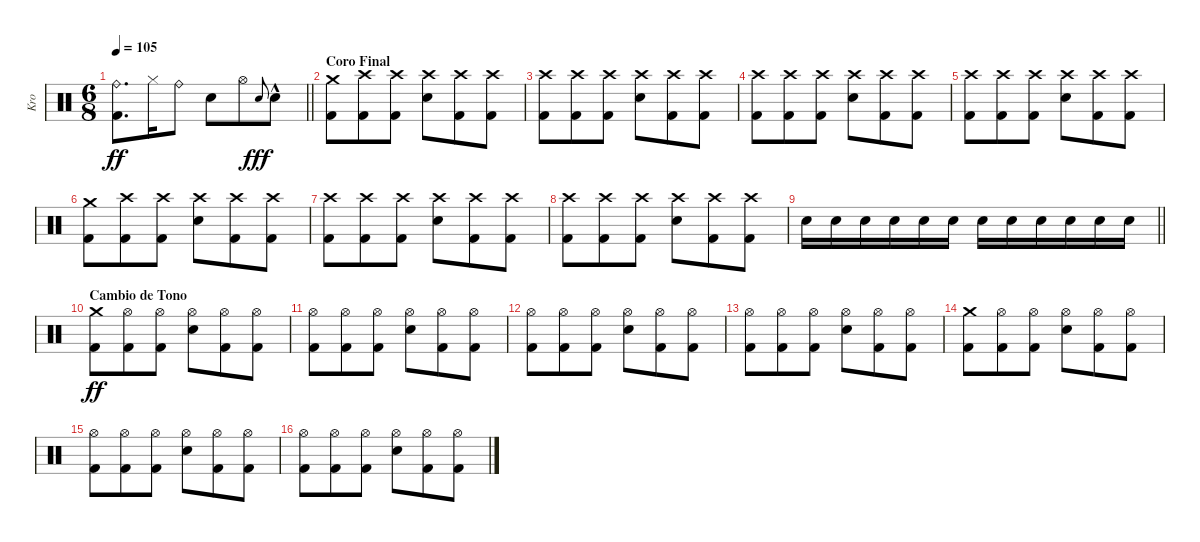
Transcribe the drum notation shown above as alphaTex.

\track ("Kro" "Kro") {instrument percussion}
\staff {score}
\articulation defaults
\ts (6 8)
\tempo 105
\clef neutral
\barLineRight lightlight
\ks c
("Ride (bell)" "Kick (hit) 2").8{d dy ff} "Hi-Hat (closed)".16 "Ride (bell)".8 "Electric Snare (hit)".8 "Hi-Hat (open)".8 "Electric Snare (hit)".8{gr onbeat dy fff} "Electric Snare (hit)"{hac}.8 |
\section ("" "Coro Final")
("Crash medium (hit)" "Kick (hit) 2").8 ("Crash high (hit)" "Kick (hit) 2").8 ("Crash high (hit)" "Kick (hit) 2").8 ("Crash high (hit)" "Electric Snare (hit)").8 ("Crash high (hit)" "Kick (hit) 2").8 ("Crash high (hit)" "Kick (hit) 2").8 |
("Crash high (hit)" "Kick (hit) 2").8 ("Crash high (hit)" "Kick (hit) 2").8 ("Crash high (hit)" "Kick (hit) 2").8 ("Crash high (hit)" "Electric Snare (hit)").8 ("Crash high (hit)" "Kick (hit) 2").8 ("Crash high (hit)" "Kick (hit) 2").8 |
("Crash high (hit)" "Kick (hit) 2").8 ("Crash high (hit)" "Kick (hit) 2").8 ("Crash high (hit)" "Kick (hit) 2").8 ("Crash high (hit)" "Electric Snare (hit)").8 ("Crash high (hit)" "Kick (hit) 2").8 ("Crash high (hit)" "Kick (hit) 2").8 |
("Crash high (hit)" "Kick (hit) 2").8 ("Crash high (hit)" "Kick (hit) 2").8 ("Crash high (hit)" "Kick (hit) 2").8 ("Crash high (hit)" "Electric Snare (hit)").8 ("Crash high (hit)" "Kick (hit) 2").8 ("Crash high (hit)" "Kick (hit) 2").8 |
("Crash medium (hit)" "Kick (hit) 2").8 ("Crash high (hit)" "Kick (hit) 2").8 ("Crash high (hit)" "Kick (hit) 2").8 ("Crash high (hit)" "Electric Snare (hit)").8 ("Crash high (hit)" "Kick (hit) 2").8 ("Crash high (hit)" "Kick (hit) 2").8 |
("Crash high (hit)" "Kick (hit) 2").8 ("Crash high (hit)" "Kick (hit) 2").8 ("Crash high (hit)" "Kick (hit) 2").8 ("Crash high (hit)" "Electric Snare (hit)").8 ("Crash high (hit)" "Kick (hit) 2").8 ("Crash high (hit)" "Kick (hit) 2").8 |
("Crash high (hit)" "Kick (hit) 2").8 ("Crash high (hit)" "Kick (hit) 2").8 ("Crash high (hit)" "Kick (hit) 2").8 ("Crash high (hit)" "Electric Snare (hit)").8 ("Crash high (hit)" "Kick (hit) 2").8 ("Crash high (hit)" "Kick (hit) 2").8 |
\barLineRight lightlight "Electric Snare (hit)".16 "Electric Snare (hit)".16 "Electric Snare (hit)".16 "Electric Snare (hit)".16 "Electric Snare (hit)".16 "Electric Snare (hit)".16 "Electric Snare (hit)".16 "Electric Snare (hit)".16 "Electric Snare (hit)".16 "Electric Snare (hit)".16 "Electric Snare (hit)".16 "Electric Snare (hit)".16
|
\section ("" "Cambio de Tono")
("Crash medium (hit)" "Kick (hit) 2").8{dy ff} ("Hi-Hat (open)" "Kick (hit) 2").8 ("Hi-Hat (open)" "Kick (hit) 2").8 ("Hi-Hat (open)" "Electric Snare (hit)").8 ("Hi-Hat (open)" "Kick (hit) 2").8 ("Hi-Hat (open)" "Kick (hit) 2").8 |
("Hi-Hat (open)" "Kick (hit) 2").8 ("Hi-Hat (open)" "Kick (hit) 2").8 ("Hi-Hat (open)" "Kick (hit) 2").8 ("Hi-Hat (open)" "Electric Snare (hit)").8 ("Hi-Hat (open)" "Kick (hit) 2").8 ("Hi-Hat (open)" "Kick (hit) 2").8 |
("Hi-Hat (open)" "Kick (hit) 2").8 ("Hi-Hat (open)" "Kick (hit) 2").8 ("Hi-Hat (open)" "Kick (hit) 2").8 ("Hi-Hat (open)" "Electric Snare (hit)").8 ("Hi-Hat (open)" "Kick (hit) 2").8 ("Hi-Hat (open)" "Kick (hit) 2").8 |
("Hi-Hat (open)" "Kick (hit) 2").8 ("Hi-Hat (open)" "Kick (hit) 2").8 ("Hi-Hat (open)" "Kick (hit) 2").8 ("Hi-Hat (open)" "Electric Snare (hit)").8 ("Hi-Hat (open)" "Kick (hit) 2").8 ("Hi-Hat (open)" "Kick (hit) 2").8 |
("Crash medium (hit)" "Kick (hit) 2").8 ("Hi-Hat (open)" "Kick (hit) 2").8 ("Hi-Hat (open)" "Kick (hit) 2").8 ("Hi-Hat (open)" "Electric Snare (hit)").8 ("Hi-Hat (open)" "Kick (hit) 2").8 ("Hi-Hat (open)" "Kick (hit) 2").8 |
("Hi-Hat (open)" "Kick (hit) 2").8 ("Hi-Hat (open)" "Kick (hit) 2").8 ("Hi-Hat (open)" "Kick (hit) 2").8 ("Hi-Hat (open)" "Electric Snare (hit)").8 ("Hi-Hat (open)" "Kick (hit) 2").8 ("Hi-Hat (open)" "Kick (hit) 2").8 |
("Hi-Hat (open)" "Kick (hit) 2").8 ("Hi-Hat (open)" "Kick (hit) 2").8 ("Hi-Hat (open)" "Kick (hit) 2").8 ("Hi-Hat (open)" "Electric Snare (hit)").8 ("Hi-Hat (open)" "Kick (hit) 2").8 ("Hi-Hat (open)" "Kick (hit) 2").8
